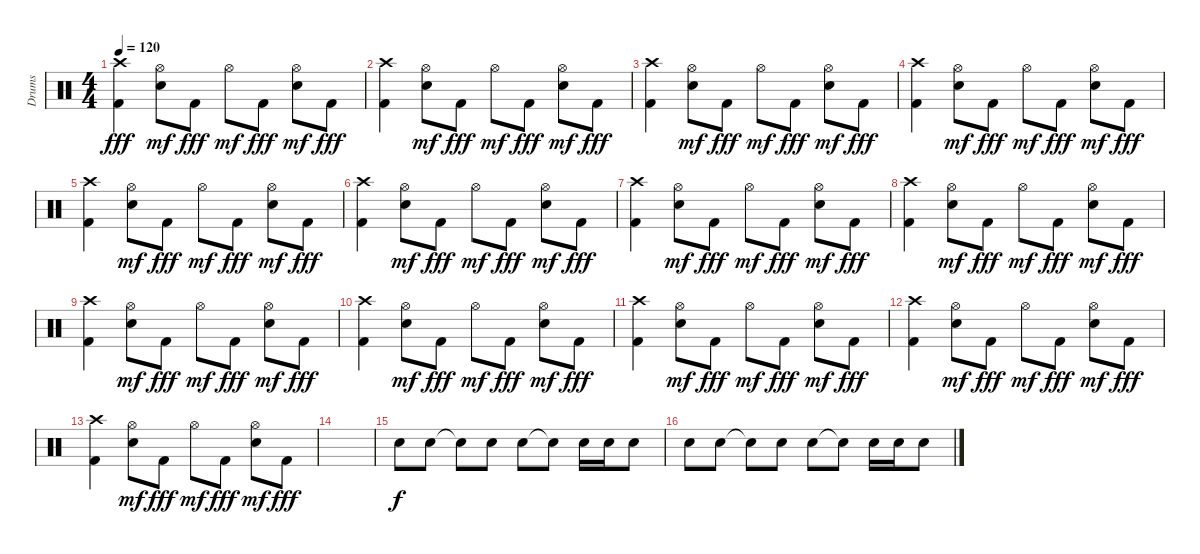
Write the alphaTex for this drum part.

\track ("Drums" "Drums") {instrument percussion}
\staff {score}
\articulation defaults
\ts (4 4)
\tempo 120
\clef neutral
\ks c
("Crash high (hit)" "Kick (hit) 2").4{dy fff} ("Hi-Hat (open)" "Electric Snare (hit)").8{dy mf} "Kick (hit) 2".8{dy fff} "Hi-Hat (open)".8{dy mf} "Kick (hit) 2".8{dy fff} ("Hi-Hat (open)" "Electric Snare (hit)").8{dy mf} "Kick (hit) 2".8{dy fff} |
("Crash high (hit)" "Kick (hit) 2").4 ("Hi-Hat (open)" "Electric Snare (hit)").8{dy mf} "Kick (hit) 2".8{dy fff} "Hi-Hat (open)".8{dy mf} "Kick (hit) 2".8{dy fff} ("Hi-Hat (open)" "Electric Snare (hit)").8{dy mf} "Kick (hit) 2".8{dy fff} |
("Crash high (hit)" "Kick (hit) 2").4 ("Hi-Hat (open)" "Electric Snare (hit)").8{dy mf} "Kick (hit) 2".8{dy fff} "Hi-Hat (open)".8{dy mf} "Kick (hit) 2".8{dy fff} ("Hi-Hat (open)" "Electric Snare (hit)").8{dy mf} "Kick (hit) 2".8{dy fff} |
("Crash high (hit)" "Kick (hit) 2").4 ("Hi-Hat (open)" "Electric Snare (hit)").8{dy mf} "Kick (hit) 2".8{dy fff} "Hi-Hat (open)".8{dy mf} "Kick (hit) 2".8{dy fff} ("Hi-Hat (open)" "Electric Snare (hit)").8{dy mf} "Kick (hit) 2".8{dy fff} |
("Crash high (hit)" "Kick (hit) 2").4 ("Hi-Hat (open)" "Electric Snare (hit)").8{dy mf} "Kick (hit) 2".8{dy fff} "Hi-Hat (open)".8{dy mf} "Kick (hit) 2".8{dy fff} ("Hi-Hat (open)" "Electric Snare (hit)").8{dy mf} "Kick (hit) 2".8{dy fff} |
("Crash high (hit)" "Kick (hit) 2").4 ("Hi-Hat (open)" "Electric Snare (hit)").8{dy mf} "Kick (hit) 2".8{dy fff} "Hi-Hat (open)".8{dy mf} "Kick (hit) 2".8{dy fff} ("Hi-Hat (open)" "Electric Snare (hit)").8{dy mf} "Kick (hit) 2".8{dy fff} |
("Crash high (hit)" "Kick (hit) 2").4 ("Hi-Hat (open)" "Electric Snare (hit)").8{dy mf} "Kick (hit) 2".8{dy fff} "Hi-Hat (open)".8{dy mf} "Kick (hit) 2".8{dy fff} ("Hi-Hat (open)" "Electric Snare (hit)").8{dy mf} "Kick (hit) 2".8{dy fff} |
("Crash high (hit)" "Kick (hit) 2").4 ("Hi-Hat (open)" "Electric Snare (hit)").8{dy mf} "Kick (hit) 2".8{dy fff} "Hi-Hat (open)".8{dy mf} "Kick (hit) 2".8{dy fff} ("Hi-Hat (open)" "Electric Snare (hit)").8{dy mf} "Kick (hit) 2".8{dy fff} |
("Crash high (hit)" "Kick (hit) 2").4 ("Hi-Hat (open)" "Electric Snare (hit)").8{dy mf} "Kick (hit) 2".8{dy fff} "Hi-Hat (open)".8{dy mf} "Kick (hit) 2".8{dy fff} ("Hi-Hat (open)" "Electric Snare (hit)").8{dy mf} "Kick (hit) 2".8{dy fff} |
("Crash high (hit)" "Kick (hit) 2").4 ("Hi-Hat (open)" "Electric Snare (hit)").8{dy mf} "Kick (hit) 2".8{dy fff} "Hi-Hat (open)".8{dy mf} "Kick (hit) 2".8{dy fff} ("Hi-Hat (open)" "Electric Snare (hit)").8{dy mf} "Kick (hit) 2".8{dy fff} |
("Crash high (hit)" "Kick (hit) 2").4 ("Hi-Hat (open)" "Electric Snare (hit)").8{dy mf} "Kick (hit) 2".8{dy fff} "Hi-Hat (open)".8{dy mf} "Kick (hit) 2".8{dy fff} ("Hi-Hat (open)" "Electric Snare (hit)").8{dy mf} "Kick (hit) 2".8{dy fff} |
("Crash high (hit)" "Kick (hit) 2").4 ("Hi-Hat (open)" "Electric Snare (hit)").8{dy mf} "Kick (hit) 2".8{dy fff} "Hi-Hat (open)".8{dy mf} "Kick (hit) 2".8{dy fff} ("Hi-Hat (open)" "Electric Snare (hit)").8{dy mf} "Kick (hit) 2".8{dy fff} |
("Crash high (hit)" "Kick (hit) 2").4 ("Hi-Hat (open)" "Electric Snare (hit)").8{dy mf} "Kick (hit) 2".8{dy fff} "Hi-Hat (open)".8{dy mf} "Kick (hit) 2".8{dy fff} ("Hi-Hat (open)" "Electric Snare (hit)").8{dy mf} "Kick (hit) 2".8{dy fff} |
|
"Electric Snare (hit)".8{dy f} "Electric Snare (hit)".8 "Electric Snare (hit)"{t}.8 "Electric Snare (hit)".8 "Electric Snare (hit)".8 "Electric Snare (hit)"{t}.8 "Electric Snare (hit)".16 "Electric Snare (hit)".16 "Electric Snare (hit)".8 |
"Electric Snare (hit)".8 "Electric Snare (hit)".8 "Electric Snare (hit)"{t}.8 "Electric Snare (hit)".8 "Electric Snare (hit)".8 "Electric Snare (hit)"{t}.8 "Electric Snare (hit)".16 "Electric Snare (hit)".16 "Electric Snare (hit)".8
